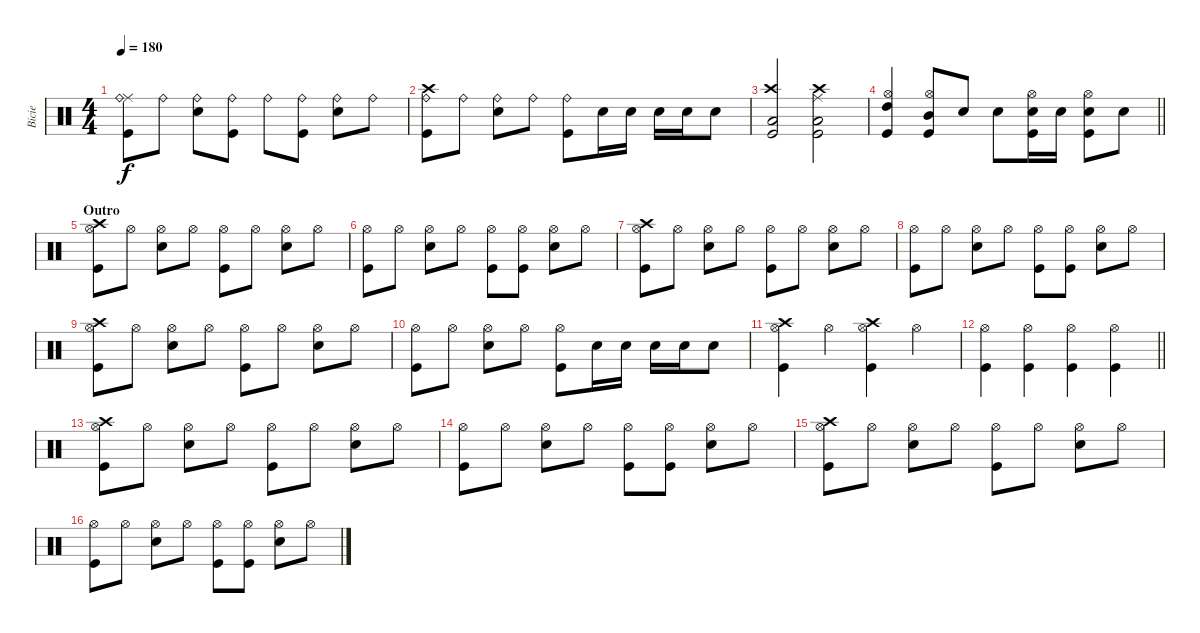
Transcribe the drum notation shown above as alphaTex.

\track ("Bicie" "Bicie") {instrument percussion}
\staff {score}
\articulation defaults
\ts (4 4)
\tempo 180
\clef neutral
\ks c
("Ride (middle)" "Ride (bell)" "Kick (hit)").8{dy f} "Ride (bell)".8 ("Ride (bell)" "Snare (hit) 2").8 ("Ride (bell)" "Kick (hit)").8 "Ride (bell)".8 ("Ride (bell)" "Kick (hit)").8 ("Ride (bell)" "Snare (hit) 2").8 "Ride (bell)".8 |
("Crash high (hit)" "Ride (bell)" "Kick (hit)").8 "Ride (bell)".8 ("Ride (bell)" "Snare (hit) 2").8 "Ride (bell)".8 ("Ride (bell)" "Kick (hit)").8 "Snare (hit) 2".16 "Snare (hit) 2".16 "Snare (hit) 2".16 "Snare (hit) 2".16 "Snare (hit) 2".8 |
("Crash high (hit)" "Low Tom (hit)" "Kick (hit)").2 ("Crash high (hit)" "Ride (middle)" "Low Tom (hit)" "Kick (hit)").2 |
\barLineRight lightlight
("Hi-Hat (open)" "High Tom (hit)" "Kick (hit)").4 ("Hi-Hat (open)" "Mid Tom (hit)" "Kick (hit)").8 "Snare (hit) 2".8 "Snare (hit) 2".8 ("Hi-Hat (open)" "Snare (hit) 2" "Kick (hit)").16 "Snare (hit) 2".16 ("Hi-Hat (open)" "Snare (hit) 2" "Kick (hit)").8 "Snare (hit) 2".8 |
\section ("" "Outro")
("Crash high (hit)" "Hi-Hat (open)" "Kick (hit)").8 "Hi-Hat (open)".8 ("Hi-Hat (open)" "Snare (hit) 2").8 "Hi-Hat (open)".8 ("Hi-Hat (open)" "Kick (hit)").8 "Hi-Hat (open)".8 ("Hi-Hat (open)" "Snare (hit) 2").8 "Hi-Hat (open)".8 |
("Hi-Hat (open)" "Kick (hit)").8 "Hi-Hat (open)".8 ("Hi-Hat (open)" "Snare (hit) 2").8 "Hi-Hat (open)".8 ("Hi-Hat (open)" "Kick (hit)").8 ("Hi-Hat (open)" "Kick (hit)").8 ("Hi-Hat (open)" "Snare (hit) 2").8 "Hi-Hat (open)".8 |
("Crash high (hit)" "Hi-Hat (open)" "Kick (hit)").8 "Hi-Hat (open)".8 ("Hi-Hat (open)" "Snare (hit) 2").8 "Hi-Hat (open)".8 ("Hi-Hat (open)" "Kick (hit)").8 "Hi-Hat (open)".8 ("Hi-Hat (open)" "Snare (hit) 2").8 "Hi-Hat (open)".8 |
("Hi-Hat (open)" "Kick (hit)").8 "Hi-Hat (open)".8 ("Hi-Hat (open)" "Snare (hit) 2").8 "Hi-Hat (open)".8 ("Hi-Hat (open)" "Kick (hit)").8 ("Hi-Hat (open)" "Kick (hit)").8 ("Hi-Hat (open)" "Snare (hit) 2").8 "Hi-Hat (open)".8 |
("Crash high (hit)" "Hi-Hat (open)" "Kick (hit)").8 "Hi-Hat (open)".8 ("Hi-Hat (open)" "Snare (hit) 2").8 "Hi-Hat (open)".8 ("Hi-Hat (open)" "Kick (hit)").8 "Hi-Hat (open)".8 ("Hi-Hat (open)" "Snare (hit) 2").8 "Hi-Hat (open)".8 |
("Hi-Hat (open)" "Kick (hit)").8 "Hi-Hat (open)".8 ("Hi-Hat (open)" "Snare (hit) 2").8 "Hi-Hat (open)".8 ("Hi-Hat (open)" "Kick (hit)").8 "Snare (hit) 2".16 "Snare (hit) 2".16 "Snare (hit) 2".16 "Snare (hit) 2".16 "Snare (hit) 2".8 |
("Crash high (hit)" "Hi-Hat (open)" "Kick (hit)").4 "Hi-Hat (open)".4 ("Crash high (hit)" "Hi-Hat (open)" "Kick (hit)").4 "Hi-Hat (open)".4 |
\barLineRight lightlight
("Hi-Hat (open)" "Kick (hit)").4 ("Hi-Hat (open)" "Kick (hit)").4 ("Hi-Hat (open)" "Kick (hit)").4 ("Hi-Hat (open)" "Kick (hit)").4 |
("Crash high (hit)" "Hi-Hat (open)" "Kick (hit)").8 "Hi-Hat (open)".8 ("Hi-Hat (open)" "Snare (hit) 2").8 "Hi-Hat (open)".8 ("Hi-Hat (open)" "Kick (hit)").8 "Hi-Hat (open)".8 ("Hi-Hat (open)" "Snare (hit) 2").8 "Hi-Hat (open)".8 |
("Hi-Hat (open)" "Kick (hit)").8 "Hi-Hat (open)".8 ("Hi-Hat (open)" "Snare (hit) 2").8 "Hi-Hat (open)".8 ("Hi-Hat (open)" "Kick (hit)").8 ("Hi-Hat (open)" "Kick (hit)").8 ("Hi-Hat (open)" "Snare (hit) 2").8 "Hi-Hat (open)".8 |
("Crash high (hit)" "Hi-Hat (open)" "Kick (hit)").8 "Hi-Hat (open)".8 ("Hi-Hat (open)" "Snare (hit) 2").8 "Hi-Hat (open)".8 ("Hi-Hat (open)" "Kick (hit)").8 "Hi-Hat (open)".8 ("Hi-Hat (open)" "Snare (hit) 2").8 "Hi-Hat (open)".8 |
("Hi-Hat (open)" "Kick (hit)").8 "Hi-Hat (open)".8 ("Hi-Hat (open)" "Snare (hit) 2").8 "Hi-Hat (open)".8 ("Hi-Hat (open)" "Kick (hit)").8 ("Hi-Hat (open)" "Kick (hit)").8 ("Hi-Hat (open)" "Snare (hit) 2").8 "Hi-Hat (open)".8
